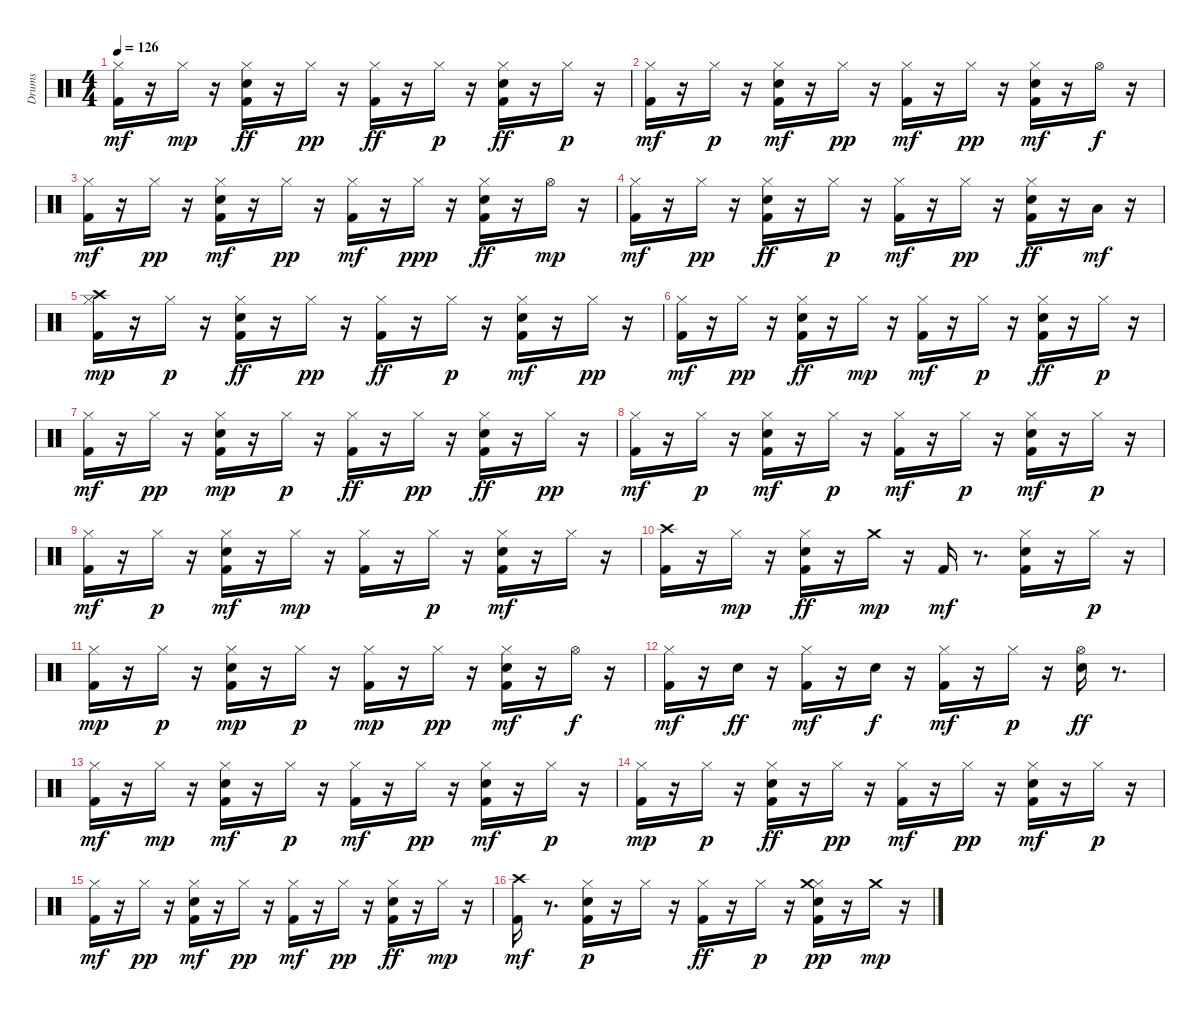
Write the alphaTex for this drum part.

\track ("Drums" "Drums") {instrument percussion}
\staff {score}
\articulation defaults
\ts (4 4)
\tempo 126
\clef neutral
\ks c
("Hi-Hat (closed)" "Kick (hit) 2").16{dy mf} r.16 "Hi-Hat (closed)".16{dy mp} r.16 ("Kick (hit) 2" "Hi-Hat (closed)" "Snare (hit) 2").16{dy ff} r.16 "Hi-Hat (closed)".16{dy pp} r.16 ("Kick (hit) 2" "Hi-Hat (closed)").16{dy ff} r.16 "Hi-Hat (closed)".16{dy p} r.16 ("Snare (hit) 2" "Kick (hit) 2" "Hi-Hat (closed)").16{dy ff} r.16 "Hi-Hat (closed)".16{dy p} r.16 |
("Hi-Hat (closed)" "Kick (hit) 2").16{dy mf} r.16 "Hi-Hat (closed)".16{dy p} r.16 ("Kick (hit) 2" "Hi-Hat (closed)" "Snare (hit) 2").16{dy mf} r.16 "Hi-Hat (closed)".16{dy pp} r.16 ("Hi-Hat (closed)" "Kick (hit) 2").16{dy mf} r.16 "Hi-Hat (closed)".16{dy pp} r.16 ("Hi-Hat (closed)" "Kick (hit) 2" "Snare (hit) 2").16{dy mf} r.16 "Hi-Hat (open)".16{dy f} r.16 |
("Kick (hit) 2" "Hi-Hat (closed)").16{dy mf} r.16 "Hi-Hat (closed)".16{dy pp} r.16 ("Snare (hit) 2" "Hi-Hat (closed)" "Kick (hit) 2").16{dy mf} r.16 "Hi-Hat (closed)".16{dy pp} r.16 ("Hi-Hat (closed)" "Kick (hit) 2").16{dy mf} r.16 "Hi-Hat (closed)".16{dy ppp} r.16 ("Hi-Hat (closed)" "Kick (hit) 2" "Snare (hit) 2").16{dy ff} r.16 "Hi-Hat (open)".16{dy mp} r.16 |
("Kick (hit) 2" "Hi-Hat (closed)").16{dy mf} r.16 "Hi-Hat (closed)".16{dy pp} r.16 ("Kick (hit) 2" "Snare (hit) 2" "Hi-Hat (closed)").16{dy ff} r.16 "Hi-Hat (closed)".16{dy p} r.16 ("Kick (hit) 2" "Hi-Hat (closed)").16{dy mf} r.16 "Hi-Hat (closed)".16{dy pp} r.16 ("Kick (hit) 2" "Snare (hit) 2" "Hi-Hat (closed)").16{dy ff} r.16 "Low Floor Tom (hit)".16{dy mf} r.16 |
("Crash high (hit)" "Kick (hit) 2" "Hi-Hat (closed)").16{dy mp} r.16 "Hi-Hat (closed)".16{dy p} r.16 ("Kick (hit) 2" "Hi-Hat (closed)" "Snare (hit) 2").16{dy ff} r.16 "Hi-Hat (closed)".16{dy pp} r.16 ("Kick (hit) 2" "Hi-Hat (closed)").16{dy ff} r.16 "Hi-Hat (closed)".16{dy p} r.16 ("Kick (hit) 2" "Snare (hit) 2" "Hi-Hat (closed)").16{dy mf} r.16 "Hi-Hat (closed)".16{dy pp} r.16 |
("Kick (hit) 2" "Hi-Hat (closed)").16{dy mf} r.16 "Hi-Hat (closed)".16{dy pp} r.16 ("Kick (hit) 2" "Snare (hit) 2" "Hi-Hat (closed)").16{dy ff} r.16 "Hi-Hat (closed)".16{dy mp} r.16 ("Kick (hit) 2" "Hi-Hat (closed)").16{dy mf} r.16 "Hi-Hat (closed)".16{dy p} r.16 ("Hi-Hat (closed)" "Kick (hit) 2" "Snare (hit) 2").16{dy ff} r.16 "Hi-Hat (closed)".16{dy p} r.16 |
("Kick (hit) 2" "Hi-Hat (closed)").16{dy mf} r.16 "Hi-Hat (closed)".16{dy pp} r.16 ("Snare (hit) 2" "Kick (hit) 2" "Hi-Hat (closed)").16{dy mp} r.16 "Hi-Hat (closed)".16{dy p} r.16 ("Kick (hit) 2" "Hi-Hat (closed)").16{dy ff} r.16 "Hi-Hat (closed)".16{dy pp} r.16 ("Kick (hit) 2" "Snare (hit) 2" "Hi-Hat (closed)").16{dy ff} r.16 "Hi-Hat (closed)".16{dy pp} r.16 |
("Kick (hit) 2" "Hi-Hat (closed)").16{dy mf} r.16 "Hi-Hat (closed)".16{dy p} r.16 ("Hi-Hat (closed)" "Kick (hit) 2" "Snare (hit) 2").16{dy mf} r.16 "Hi-Hat (closed)".16{dy p} r.16 ("Kick (hit) 2" "Hi-Hat (closed)").16{dy mf} r.16 "Hi-Hat (closed)".16{dy p} r.16 ("Kick (hit) 2" "Snare (hit) 2" "Hi-Hat (closed)").16{dy mf} r.16 "Hi-Hat (closed)".16{dy p} r.16 |
("Kick (hit) 2" "Hi-Hat (closed)").16{dy mf} r.16 "Hi-Hat (closed)".16{dy p} r.16 ("Snare (hit) 2" "Kick (hit) 2" "Hi-Hat (closed)").16{dy mf} r.16 "Hi-Hat (closed)".16{dy mp} r.16 ("Kick (hit) 2" "Hi-Hat (closed)").16 r.16 "Hi-Hat (closed)".16{dy p} r.16 ("Snare (hit) 2" "Kick (hit) 2" "Hi-Hat (closed)").16{dy mf} r.16 "Hi-Hat (closed)".16 r.16 |
("Crash high (hit)" "Kick (hit) 2").16 r.16 "Hi-Hat (closed)".16{dy mp} r.16 ("Hi-Hat (closed)" "Kick (hit) 2" "Snare (hit) 2").16{dy ff} r.16 "Crash medium (hit)".16{dy mp} r.16 "Kick (hit) 2".16{dy mf} r.8{d} ("Hi-Hat (closed)" "Snare (hit) 2" "Kick (hit) 2").16 r.16 "Hi-Hat (closed)".16{dy p} r.16 |
("Hi-Hat (closed)" "Kick (hit) 2").16{dy mp} r.16 "Hi-Hat (closed)".16{dy p} r.16 ("Hi-Hat (closed)" "Kick (hit) 2" "Snare (hit) 2").16{dy mp} r.16 "Hi-Hat (closed)".16{dy p} r.16 ("Hi-Hat (closed)" "Kick (hit) 2").16{dy mp} r.16 "Hi-Hat (closed)".16{dy pp} r.16 ("Snare (hit) 2" "Hi-Hat (closed)" "Kick (hit) 2").16{dy mf} r.16 "Hi-Hat (open)".16{dy f} r.16 |
("Hi-Hat (closed)" "Kick (hit) 2").16{dy mf} r.16 "Snare (hit) 2".16{dy ff} r.16 ("Hi-Hat (closed)" "Kick (hit) 2").16{dy mf} r.16 "Snare (hit) 2".16{dy f} r.16 ("Kick (hit) 2" "Hi-Hat (closed)").16{dy mf} r.16 "Hi-Hat (closed)".16{dy p} r.16 ("Snare (hit) 2" "Hi-Hat (open)").16{dy ff} r.8{d} |
("Kick (hit) 2" "Hi-Hat (closed)").16{dy mf} r.16 "Hi-Hat (closed)".16{dy mp} r.16 ("Snare (hit) 2" "Hi-Hat (closed)" "Kick (hit) 2").16{dy mf} r.16 "Hi-Hat (closed)".16{dy p} r.16 ("Hi-Hat (closed)" "Kick (hit) 2").16{dy mf} r.16 "Hi-Hat (closed)".16{dy pp} r.16 ("Snare (hit) 2" "Kick (hit) 2" "Hi-Hat (closed)").16{dy mf} r.16 "Hi-Hat (closed)".16{dy p} r.16 |
("Kick (hit) 2" "Hi-Hat (closed)").16{dy mp} r.16 "Hi-Hat (closed)".16{dy p} r.16 ("Kick (hit) 2" "Snare (hit) 2" "Hi-Hat (closed)").16{dy ff} r.16 "Hi-Hat (closed)".16{dy pp} r.16 ("Kick (hit) 2" "Hi-Hat (closed)").16{dy mf} r.16 "Hi-Hat (closed)".16{dy pp} r.16 ("Snare (hit) 2" "Kick (hit) 2" "Hi-Hat (closed)").16{dy mf} r.16 "Hi-Hat (closed)".16{dy p} r.16 |
("Hi-Hat (closed)" "Kick (hit) 2").16{dy mf} r.16 "Hi-Hat (closed)".16{dy pp} r.16 ("Kick (hit) 2" "Hi-Hat (closed)" "Snare (hit) 2").16{dy mf} r.16 "Hi-Hat (closed)".16{dy pp} r.16 ("Kick (hit) 2" "Hi-Hat (closed)").16{dy mf} r.16 "Hi-Hat (closed)".16{dy pp} r.16 ("Hi-Hat (closed)" "Kick (hit) 2" "Snare (hit) 2").16{dy ff} r.16 "Hi-Hat (closed)".16{dy mp} r.16 |
("Kick (hit) 2" "Crash high (hit)").16{dy mf} r.8{d} ("Kick (hit) 2" "Snare (hit) 2" "Hi-Hat (closed)").16{dy p} r.16 "Hi-Hat (closed)".16 r.16 ("Kick (hit) 2" "Hi-Hat (closed)").16{dy ff} r.16 "Hi-Hat (closed)".16{dy p} r.16 ("Snare (hit) 2" "Kick (hit) 2" "Hi-Hat (closed)" "Crash medium (hit)").16{dy pp} r.16 "Crash medium (hit)".16{dy mp} r.16
